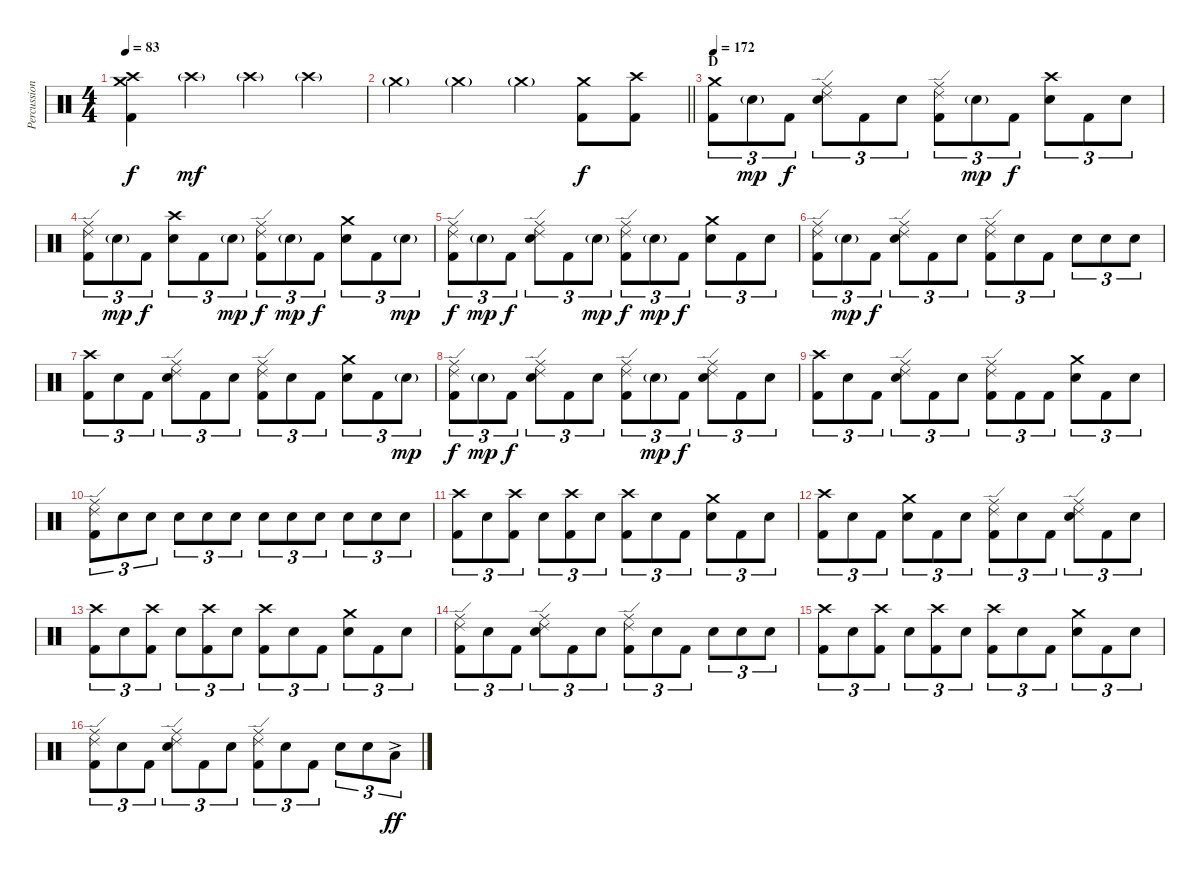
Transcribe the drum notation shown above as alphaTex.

\track ("Percussion" "Percussion") {instrument percussion}
\staff {score}
\articulation defaults
\ts (4 4)
\tempo 83
\clef neutral
\ks c
("Crash medium (hit)" "Crash high (hit)" "Kick (hit) 2").4{dy f} "Crash high (hit)"{g}.4{dy mf} "Crash high (hit)"{g}.4 "Crash high (hit)"{g}.4 |
\barLineRight lightlight "Crash medium (hit)"{g}.4 "Crash medium (hit)"{g}.4 "Crash medium (hit)"{g}.4
("Crash medium (hit)" "Kick (hit) 2").8{dy f} ("Crash high (hit)" "Kick (hit) 2").8 |
\section ("" "D")
\tempo 172
("Crash medium (hit)" "Kick (hit) 2").8{tu (3 2)} "Electric Snare (hit)"{g}.8{tu (3 2) dy mp} "Kick (hit) 2".8{tu (3 2) dy f} ("Ride (edge) 2" "Ride (middle)" "Electric Snare (hit)").8{tu (3 2)} "Kick (hit) 2".8{tu (3 2)} "Electric Snare (hit)".8{tu (3 2)} ("Ride (edge) 2" "Ride (middle)" "Kick (hit) 2").8{tu (3 2)} "Electric Snare (hit)"{g}.8{tu (3 2) dy mp} "Kick (hit) 2".8{tu (3 2) dy f} ("Crash high (hit)" "Electric Snare (hit)").8{tu (3 2)} "Kick (hit) 2".8{tu (3 2)} "Electric Snare (hit)".8{tu (3 2)} |
("Ride (edge) 2" "Ride (middle)" "Kick (hit) 2").8{tu (3 2)} "Electric Snare (hit)"{g}.8{tu (3 2) dy mp} "Kick (hit) 2".8{tu (3 2) dy f} ("Crash high (hit)" "Electric Snare (hit)").8{tu (3 2)} "Kick (hit) 2".8{tu (3 2)} "Electric Snare (hit)"{g}.8{tu (3 2) dy mp} ("Ride (edge) 2" "Ride (middle)" "Kick (hit) 2").8{tu (3 2) dy f} "Electric Snare (hit)"{g}.8{tu (3 2) dy mp} "Kick (hit) 2".8{tu (3 2) dy f} ("Crash medium (hit)" "Electric Snare (hit)").8{tu (3 2)} "Kick (hit) 2".8{tu (3 2)} "Electric Snare (hit)"{g}.8{tu (3 2) dy mp} |
("Ride (edge) 2" "Ride (middle)" "Kick (hit) 2").8{tu (3 2) dy f} "Electric Snare (hit)"{g}.8{tu (3 2) dy mp} "Kick (hit) 2".8{tu (3 2) dy f} ("Ride (edge) 2" "Ride (middle)" "Electric Snare (hit)").8{tu (3 2)} "Kick (hit) 2".8{tu (3 2)} "Electric Snare (hit)"{g}.8{tu (3 2) dy mp} ("Ride (edge) 2" "Ride (middle)" "Kick (hit) 2").8{tu (3 2) dy f} "Electric Snare (hit)"{g}.8{tu (3 2) dy mp} "Kick (hit) 2".8{tu (3 2) dy f} ("Crash medium (hit)" "Electric Snare (hit)").8{tu (3 2)} "Kick (hit) 2".8{tu (3 2)} "Electric Snare (hit)".8{tu (3 2)} |
("Ride (edge) 2" "Ride (middle)" "Kick (hit) 2").8{tu (3 2)} "Electric Snare (hit)"{g}.8{tu (3 2) dy mp} "Kick (hit) 2".8{tu (3 2) dy f} ("Ride (edge) 2" "Ride (middle)" "Electric Snare (hit)").8{tu (3 2)} "Kick (hit) 2".8{tu (3 2)} "Electric Snare (hit)".8{tu (3 2)} ("Ride (edge) 2" "Ride (middle)" "Kick (hit) 2").8{tu (3 2)} "Electric Snare (hit)".8{tu (3 2)} "Kick (hit) 2".8{tu (3 2)} "Electric Snare (hit)".8{tu (3 2)} "Electric Snare (hit)".8{tu (3 2)} "Electric Snare (hit)".8{tu (3 2)} |
("Crash high (hit)" "Kick (hit) 2").8{tu (3 2)} "Electric Snare (hit)".8{tu (3 2)} "Kick (hit) 2".8{tu (3 2)} ("Ride (edge) 2" "Ride (middle)" "Electric Snare (hit)").8{tu (3 2)} "Kick (hit) 2".8{tu (3 2)} "Electric Snare (hit)".8{tu (3 2)} ("Ride (edge) 2" "Ride (middle)" "Kick (hit) 2").8{tu (3 2)} "Electric Snare (hit)".8{tu (3 2)} "Kick (hit) 2".8{tu (3 2)} ("Crash medium (hit)" "Electric Snare (hit)").8{tu (3 2)} "Kick (hit) 2".8{tu (3 2)} "Electric Snare (hit)"{g}.8{tu (3 2) dy mp} |
("Ride (edge) 2" "Ride (middle)" "Kick (hit) 2").8{tu (3 2) dy f} "Electric Snare (hit)"{g}.8{tu (3 2) dy mp} "Kick (hit) 2".8{tu (3 2) dy f} ("Ride (edge) 2" "Ride (middle)" "Electric Snare (hit)").8{tu (3 2)} "Kick (hit) 2".8{tu (3 2)} "Electric Snare (hit)".8{tu (3 2)} ("Ride (edge) 2" "Ride (middle)" "Kick (hit) 2").8{tu (3 2)} "Electric Snare (hit)"{g}.8{tu (3 2) dy mp} "Kick (hit) 2".8{tu (3 2) dy f} ("Ride (edge) 2" "Ride (middle)" "Electric Snare (hit)").8{tu (3 2)} "Kick (hit) 2".8{tu (3 2)} "Electric Snare (hit)".8{tu (3 2)} |
("Crash high (hit)" "Kick (hit) 2").8{tu (3 2)} "Electric Snare (hit)".8{tu (3 2)} "Kick (hit) 2".8{tu (3 2)} ("Ride (edge) 2" "Ride (middle)" "Electric Snare (hit)").8{tu (3 2)} "Kick (hit) 2".8{tu (3 2)} "Electric Snare (hit)".8{tu (3 2)} ("Ride (edge) 2" "Ride (middle)" "Kick (hit) 2").8{tu (3 2)} "Kick (hit) 2".8{tu (3 2)} "Kick (hit) 2".8{tu (3 2)} ("Crash medium (hit)" "Electric Snare (hit)").8{tu (3 2)} "Kick (hit) 2".8{tu (3 2)} "Electric Snare (hit)".8{tu (3 2)} |
("Ride (edge) 2" "Ride (middle)" "Kick (hit) 2").8{tu (3 2)} "Electric Snare (hit)".8{tu (3 2)} "Electric Snare (hit)".8{tu (3 2)} "Electric Snare (hit)".8{tu (3 2)} "Electric Snare (hit)".8{tu (3 2)} "Electric Snare (hit)".8{tu (3 2)} "Electric Snare (hit)".8{tu (3 2)} "Electric Snare (hit)".8{tu (3 2)} "Electric Snare (hit)".8{tu (3 2)} "Electric Snare (hit)".8{tu (3 2)} "Electric Snare (hit)".8{tu (3 2)} "Electric Snare (hit)".8{tu (3 2)} |
("Crash high (hit)" "Kick (hit) 2").8{tu (3 2)} "Electric Snare (hit)".8{tu (3 2)} ("Crash high (hit)" "Kick (hit) 2").8{tu (3 2)} "Electric Snare (hit)".8{tu (3 2)} ("Crash high (hit)" "Kick (hit) 2").8{tu (3 2)} "Electric Snare (hit)".8{tu (3 2)} ("Crash high (hit)" "Kick (hit) 2").8{tu (3 2)} "Electric Snare (hit)".8{tu (3 2)} "Kick (hit) 2".8{tu (3 2)} ("Crash medium (hit)" "Electric Snare (hit)").8{tu (3 2)} "Kick (hit) 2".8{tu (3 2)} "Electric Snare (hit)".8{tu (3 2)} |
("Crash high (hit)" "Kick (hit) 2").8{tu (3 2)} "Electric Snare (hit)".8{tu (3 2)} "Kick (hit) 2".8{tu (3 2)} ("Crash medium (hit)" "Electric Snare (hit)").8{tu (3 2)} "Kick (hit) 2".8{tu (3 2)} "Electric Snare (hit)".8{tu (3 2)} ("Ride (edge) 2" "Ride (middle)" "Kick (hit) 2").8{tu (3 2)} "Electric Snare (hit)".8{tu (3 2)} "Kick (hit) 2".8{tu (3 2)} ("Ride (edge) 2" "Ride (middle)" "Electric Snare (hit)").8{tu (3 2)} "Kick (hit) 2".8{tu (3 2)} "Electric Snare (hit)".8{tu (3 2)} |
("Crash high (hit)" "Kick (hit) 2").8{tu (3 2)} "Electric Snare (hit)".8{tu (3 2)} ("Crash high (hit)" "Kick (hit) 2").8{tu (3 2)} "Electric Snare (hit)".8{tu (3 2)} ("Crash high (hit)" "Kick (hit) 2").8{tu (3 2)} "Electric Snare (hit)".8{tu (3 2)} ("Crash high (hit)" "Kick (hit) 2").8{tu (3 2)} "Electric Snare (hit)".8{tu (3 2)} "Kick (hit) 2".8{tu (3 2)} ("Crash medium (hit)" "Electric Snare (hit)").8{tu (3 2)} "Kick (hit) 2".8{tu (3 2)} "Electric Snare (hit)".8{tu (3 2)} |
("Ride (edge) 2" "Ride (middle)" "Kick (hit) 2").8{tu (3 2)} "Electric Snare (hit)".8{tu (3 2)} "Kick (hit) 2".8{tu (3 2)} ("Ride (edge) 2" "Ride (middle)" "Electric Snare (hit)").8{tu (3 2)} "Kick (hit) 2".8{tu (3 2)} "Electric Snare (hit)".8{tu (3 2)} ("Ride (edge) 2" "Ride (middle)" "Kick (hit) 2").8{tu (3 2)} "Electric Snare (hit)".8{tu (3 2)} "Kick (hit) 2".8{tu (3 2)} "Electric Snare (hit)".8{tu (3 2)} "Electric Snare (hit)".8{tu (3 2)} "Electric Snare (hit)".8{tu (3 2)} |
("Crash high (hit)" "Kick (hit) 2").8{tu (3 2)} "Electric Snare (hit)".8{tu (3 2)} ("Crash high (hit)" "Kick (hit) 2").8{tu (3 2)} "Electric Snare (hit)".8{tu (3 2)} ("Crash high (hit)" "Kick (hit) 2").8{tu (3 2)} "Electric Snare (hit)".8{tu (3 2)} ("Crash high (hit)" "Kick (hit) 2").8{tu (3 2)} "Electric Snare (hit)".8{tu (3 2)} "Kick (hit) 2".8{tu (3 2)} ("Crash medium (hit)" "Electric Snare (hit)").8{tu (3 2)} "Kick (hit) 2".8{tu (3 2)} "Electric Snare (hit)".8{tu (3 2)} |
("Ride (edge) 2" "Ride (middle)" "Kick (hit) 2").8{tu (3 2)} "Electric Snare (hit)".8{tu (3 2)} "Kick (hit) 2".8{tu (3 2)} ("Ride (edge) 2" "Ride (middle)" "Electric Snare (hit)").8{tu (3 2)} "Kick (hit) 2".8{tu (3 2)} "Electric Snare (hit)".8{tu (3 2)} ("Ride (edge) 2" "Ride (middle)" "Kick (hit) 2").8{tu (3 2)} "Electric Snare (hit)".8{tu (3 2)} "Kick (hit) 2".8{tu (3 2)} "Electric Snare (hit)".8{tu (3 2)} "Electric Snare (hit)".8{tu (3 2)} "Low Tom (hit)"{ac}.8{tu (3 2) dy ff}
